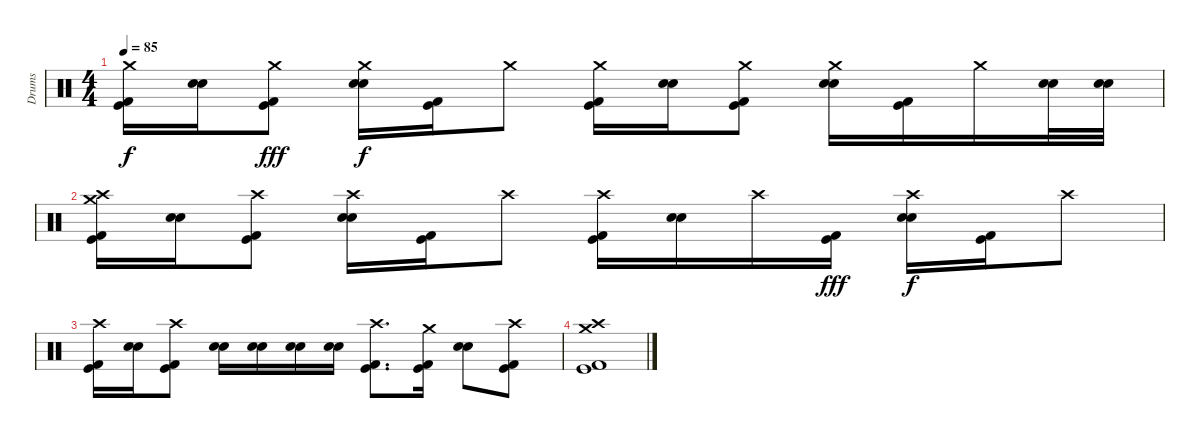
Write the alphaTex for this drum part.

\track ("Drums" "Drums") {instrument percussion}
\staff {score}
\articulation defaults
\ts (4 4)
\tempo 85
\clef neutral
\ks c
("Crash medium (hit)" "Kick (hit)" "Kick (hit) 2").16{dy f} ("Electric Snare (hit)" "Snare (hit) 2").16 ("Crash medium (hit)" "Kick (hit)" "Kick (hit) 2").8{dy fff} ("Crash medium (hit)" "Electric Snare (hit)" "Snare (hit) 2").16{dy f} ("Kick (hit)" "Kick (hit) 2").16 "Crash medium (hit)".8 ("Crash medium (hit)" "Kick (hit)" "Kick (hit) 2").16 ("Electric Snare (hit)" "Snare (hit) 2").16 ("Crash medium (hit)" "Kick (hit)" "Kick (hit) 2").8 ("Crash medium (hit)" "Electric Snare (hit)" "Snare (hit) 2").16 ("Kick (hit)" "Kick (hit) 2").16 "Crash medium (hit)".16 ("Electric Snare (hit)" "Snare (hit) 2").32 ("Electric Snare (hit)" "Snare (hit) 2").32 |
("Crash high (hit)" "Crash medium (hit)" "Kick (hit)" "Kick (hit) 2").16 ("Electric Snare (hit)" "Snare (hit) 2").16 ("Crash high (hit)" "Kick (hit)" "Kick (hit) 2").8 ("Crash high (hit)" "Electric Snare (hit)" "Snare (hit) 2").16 ("Kick (hit)" "Kick (hit) 2").16 "Crash high (hit)".8 ("Crash high (hit)" "Kick (hit)" "Kick (hit) 2").16 ("Electric Snare (hit)" "Snare (hit) 2").16 "Crash high (hit)".16 ("Kick (hit)" "Kick (hit) 2").16{dy fff} ("Crash high (hit)" "Electric Snare (hit)" "Snare (hit) 2").16{dy f} ("Kick (hit)" "Kick (hit) 2").16 "Crash high (hit)".8 |
("Crash high (hit)" "Kick (hit)" "Kick (hit) 2").16 ("Electric Snare (hit)" "Snare (hit) 2").16 ("Crash high (hit)" "Kick (hit)" "Kick (hit) 2").8 ("Electric Snare (hit)" "Snare (hit) 2").16 ("Electric Snare (hit)" "Snare (hit) 2").16 ("Electric Snare (hit)" "Snare (hit) 2").16 ("Electric Snare (hit)" "Snare (hit) 2").16 ("Crash high (hit)" "Kick (hit)" "Kick (hit) 2").8{d} ("Crash medium (hit)" "Kick (hit)" "Kick (hit) 2").16 ("Electric Snare (hit)" "Snare (hit) 2").8 ("Crash high (hit)" "Kick (hit)" "Kick (hit) 2").8 |
("Crash medium (hit)" "Crash high (hit)" "Kick (hit)" "Kick (hit) 2").1
